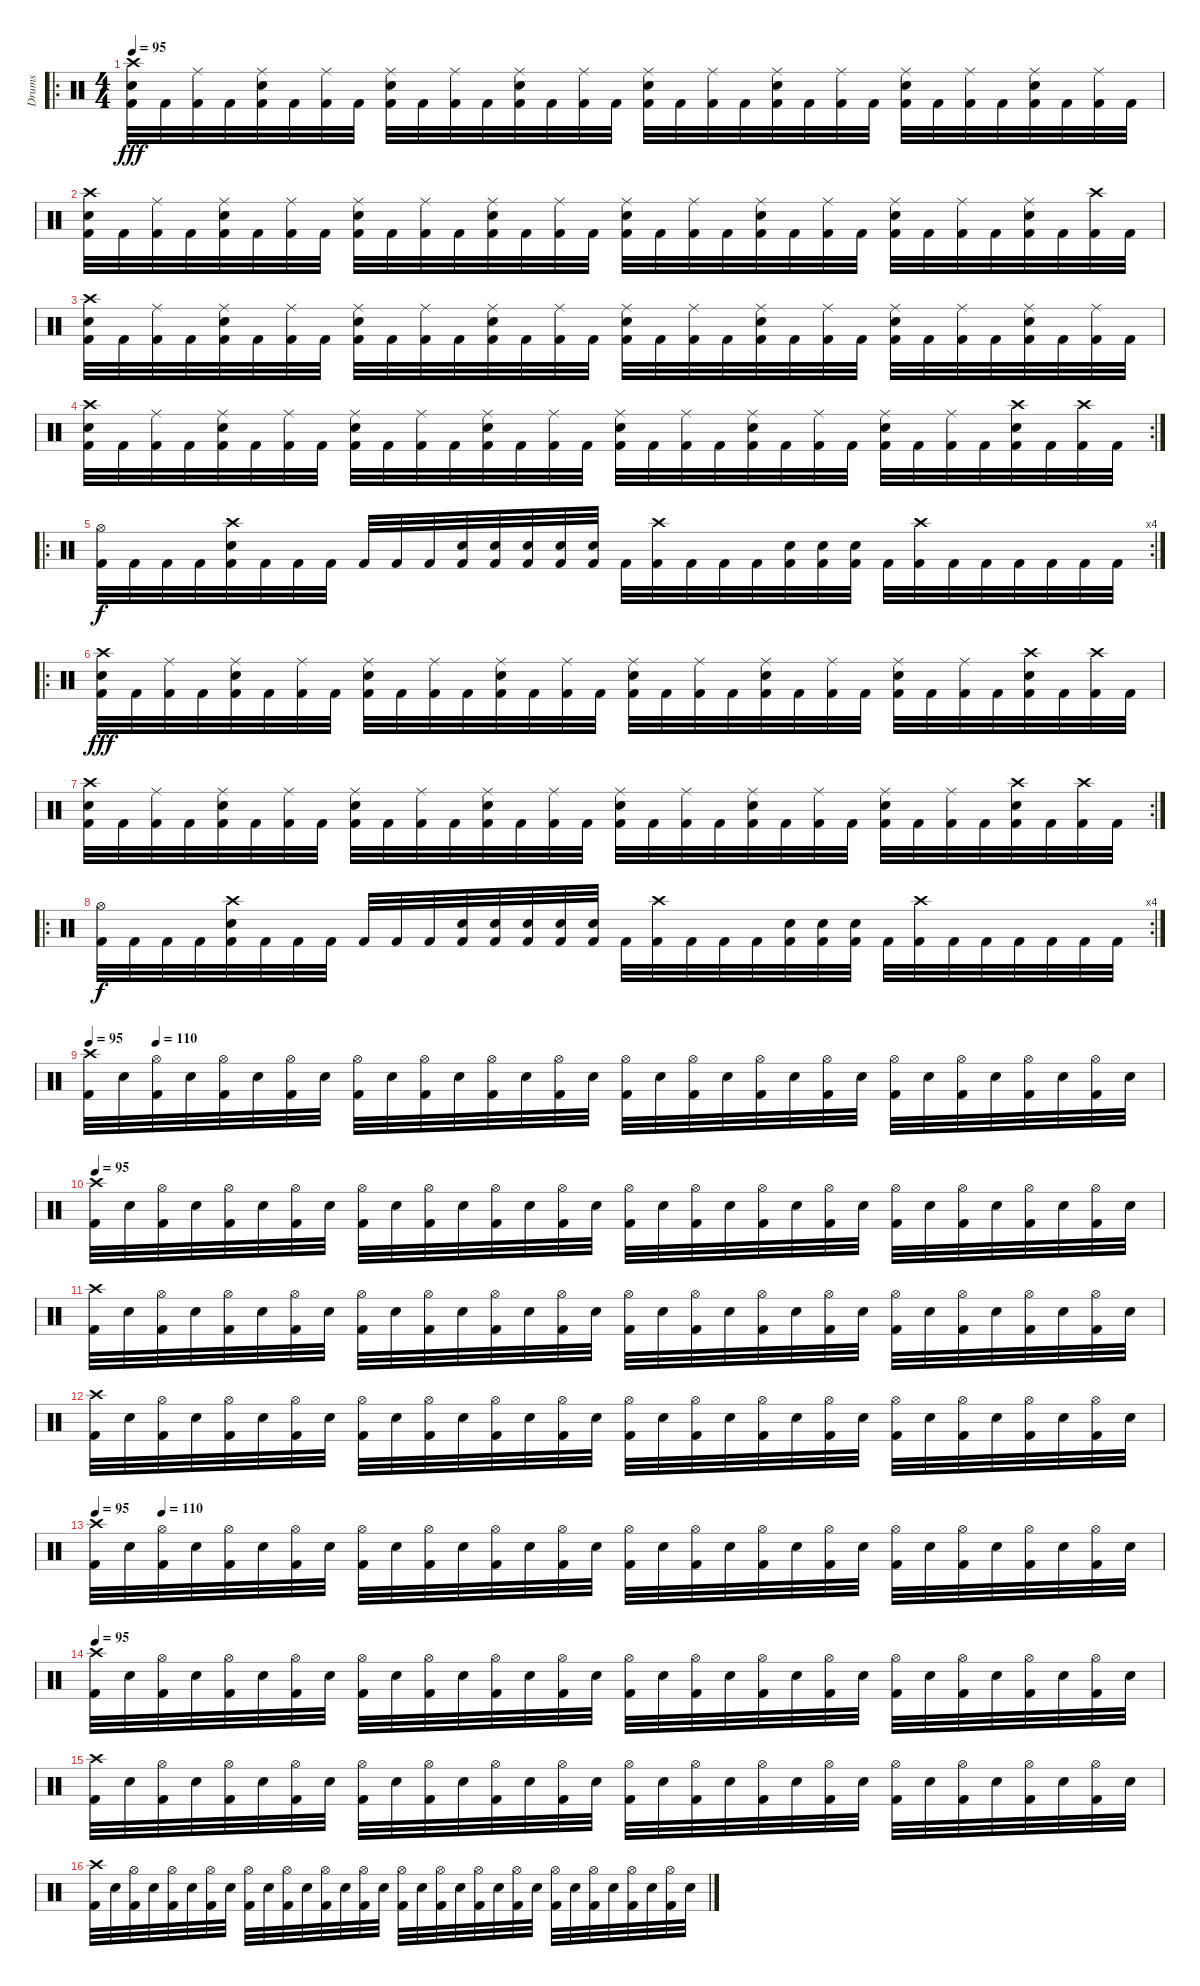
\track ("Drums" "Drums") {instrument percussion}
\staff {score}
\articulation defaults
\ro
\ts (4 4)
\tempo 95
\clef neutral
\ks c
("Crash high (hit)" "Snare (hit) 2" "Kick (hit) 2").32{dy fff} "Kick (hit) 2".32 ("Ride (middle)" "Kick (hit) 2").32 "Kick (hit) 2".32 ("Ride (middle)" "Snare (hit) 2" "Kick (hit) 2").32 "Kick (hit) 2".32 ("Ride (middle)" "Kick (hit) 2").32 "Kick (hit) 2".32 ("Ride (middle)" "Snare (hit) 2" "Kick (hit) 2").32 "Kick (hit) 2".32 ("Ride (middle)" "Kick (hit) 2").32 "Kick (hit) 2".32 ("Ride (middle)" "Snare (hit) 2" "Kick (hit) 2").32 "Kick (hit) 2".32 ("Ride (middle)" "Kick (hit) 2").32 "Kick (hit) 2".32 ("Ride (middle)" "Snare (hit) 2" "Kick (hit) 2").32 "Kick (hit) 2".32 ("Ride (middle)" "Kick (hit) 2").32 "Kick (hit) 2".32 ("Ride (middle)" "Snare (hit) 2" "Kick (hit) 2").32 "Kick (hit) 2".32 ("Ride (middle)" "Kick (hit) 2").32 "Kick (hit) 2".32 ("Ride (middle)" "Snare (hit) 2" "Kick (hit) 2").32 "Kick (hit) 2".32 ("Ride (middle)" "Kick (hit) 2").32 "Kick (hit) 2".32 ("Ride (middle)" "Snare (hit) 2" "Kick (hit) 2").32 "Kick (hit) 2".32 ("Ride (middle)" "Kick (hit) 2").32 "Kick (hit) 2".32 |
("Crash high (hit)" "Snare (hit) 2" "Kick (hit) 2").32 "Kick (hit) 2".32 ("Ride (middle)" "Kick (hit) 2").32 "Kick (hit) 2".32 ("Ride (middle)" "Snare (hit) 2" "Kick (hit) 2").32 "Kick (hit) 2".32 ("Ride (middle)" "Kick (hit) 2").32 "Kick (hit) 2".32 ("Ride (middle)" "Snare (hit) 2" "Kick (hit) 2").32 "Kick (hit) 2".32 ("Ride (middle)" "Kick (hit) 2").32 "Kick (hit) 2".32 ("Ride (middle)" "Snare (hit) 2" "Kick (hit) 2").32 "Kick (hit) 2".32 ("Ride (middle)" "Kick (hit) 2").32 "Kick (hit) 2".32 ("Ride (middle)" "Snare (hit) 2" "Kick (hit) 2").32 "Kick (hit) 2".32 ("Ride (middle)" "Kick (hit) 2").32 "Kick (hit) 2".32 ("Ride (middle)" "Snare (hit) 2" "Kick (hit) 2").32 "Kick (hit) 2".32 ("Ride (middle)" "Kick (hit) 2").32 "Kick (hit) 2".32 ("Ride (middle)" "Snare (hit) 2" "Kick (hit) 2").32 "Kick (hit) 2".32 ("Ride (middle)" "Kick (hit) 2").32 "Kick (hit) 2".32 ("Ride (middle)" "Snare (hit) 2" "Kick (hit) 2").32 "Kick (hit) 2".32 ("Crash high (hit)" "Kick (hit) 2").32 "Kick (hit) 2".32 |
("Crash high (hit)" "Snare (hit) 2" "Kick (hit) 2").32 "Kick (hit) 2".32 ("Ride (middle)" "Kick (hit) 2").32 "Kick (hit) 2".32 ("Ride (middle)" "Snare (hit) 2" "Kick (hit) 2").32 "Kick (hit) 2".32 ("Ride (middle)" "Kick (hit) 2").32 "Kick (hit) 2".32 ("Ride (middle)" "Snare (hit) 2" "Kick (hit) 2").32 "Kick (hit) 2".32 ("Ride (middle)" "Kick (hit) 2").32 "Kick (hit) 2".32 ("Ride (middle)" "Snare (hit) 2" "Kick (hit) 2").32 "Kick (hit) 2".32 ("Ride (middle)" "Kick (hit) 2").32 "Kick (hit) 2".32 ("Ride (middle)" "Snare (hit) 2" "Kick (hit) 2").32 "Kick (hit) 2".32 ("Ride (middle)" "Kick (hit) 2").32 "Kick (hit) 2".32 ("Ride (middle)" "Snare (hit) 2" "Kick (hit) 2").32 "Kick (hit) 2".32 ("Ride (middle)" "Kick (hit) 2").32 "Kick (hit) 2".32 ("Ride (middle)" "Snare (hit) 2" "Kick (hit) 2").32 "Kick (hit) 2".32 ("Ride (middle)" "Kick (hit) 2").32 "Kick (hit) 2".32 ("Ride (middle)" "Snare (hit) 2" "Kick (hit) 2").32 "Kick (hit) 2".32 ("Ride (middle)" "Kick (hit) 2").32 "Kick (hit) 2".32 |
\rc 2
("Crash high (hit)" "Snare (hit) 2" "Kick (hit) 2").32 "Kick (hit) 2".32 ("Ride (middle)" "Kick (hit) 2").32 "Kick (hit) 2".32 ("Ride (middle)" "Snare (hit) 2" "Kick (hit) 2").32 "Kick (hit) 2".32 ("Ride (middle)" "Kick (hit) 2").32 "Kick (hit) 2".32 ("Ride (middle)" "Snare (hit) 2" "Kick (hit) 2").32 "Kick (hit) 2".32 ("Ride (middle)" "Kick (hit) 2").32 "Kick (hit) 2".32 ("Ride (middle)" "Snare (hit) 2" "Kick (hit) 2").32 "Kick (hit) 2".32 ("Ride (middle)" "Kick (hit) 2").32 "Kick (hit) 2".32 ("Ride (middle)" "Snare (hit) 2" "Kick (hit) 2").32 "Kick (hit) 2".32 ("Ride (middle)" "Kick (hit) 2").32 "Kick (hit) 2".32 ("Ride (middle)" "Snare (hit) 2" "Kick (hit) 2").32 "Kick (hit) 2".32 ("Ride (middle)" "Kick (hit) 2").32 "Kick (hit) 2".32 ("Ride (middle)" "Snare (hit) 2" "Kick (hit) 2").32 "Kick (hit) 2".32 ("Ride (middle)" "Kick (hit) 2").32 "Kick (hit) 2".32 ("Crash high (hit)" "Snare (hit) 2" "Kick (hit) 2").32 "Kick (hit) 2".32 ("Crash high (hit)" "Kick (hit) 2").32 "Kick (hit) 2".32 |
\ro
\rc 4
("Hi-Hat (open)" "Kick (hit) 2").32{dy f} "Kick (hit) 2".32 "Kick (hit) 2".32 "Kick (hit) 2".32 ("Crash high (hit)" "Snare (hit) 2" "Kick (hit) 2").32 "Kick (hit) 2".32 "Kick (hit) 2".32 "Kick (hit) 2".32 "Kick (hit) 2".32 "Kick (hit) 2".32 "Kick (hit) 2".32 ("Snare (hit) 2" "Kick (hit) 2").32 ("Snare (hit) 2" "Kick (hit) 2").32 ("Snare (hit) 2" "Kick (hit) 2").32 ("Snare (hit) 2" "Kick (hit) 2").32 ("Snare (hit) 2" "Kick (hit) 2").32 "Kick (hit) 2".32 ("Crash high (hit)" "Kick (hit) 2").32 "Kick (hit) 2".32 "Kick (hit) 2".32 "Kick (hit) 2".32 ("Snare (hit) 2" "Kick (hit) 2").32 ("Snare (hit) 2" "Kick (hit) 2").32 ("Snare (hit) 2" "Kick (hit) 2").32 "Kick (hit) 2".32 ("Crash high (hit)" "Kick (hit) 2").32 "Kick (hit) 2".32 "Kick (hit) 2".32 "Kick (hit) 2".32 "Kick (hit) 2".32 "Kick (hit) 2".32 "Kick (hit) 2".32 |
\ro
("Crash high (hit)" "Snare (hit) 2" "Kick (hit) 2").32{dy fff} "Kick (hit) 2".32 ("Ride (middle)" "Kick (hit) 2").32 "Kick (hit) 2".32 ("Ride (middle)" "Snare (hit) 2" "Kick (hit) 2").32 "Kick (hit) 2".32 ("Ride (middle)" "Kick (hit) 2").32 "Kick (hit) 2".32 ("Ride (middle)" "Snare (hit) 2" "Kick (hit) 2").32 "Kick (hit) 2".32 ("Ride (middle)" "Kick (hit) 2").32 "Kick (hit) 2".32 ("Ride (middle)" "Snare (hit) 2" "Kick (hit) 2").32 "Kick (hit) 2".32 ("Ride (middle)" "Kick (hit) 2").32 "Kick (hit) 2".32 ("Ride (middle)" "Snare (hit) 2" "Kick (hit) 2").32 "Kick (hit) 2".32 ("Ride (middle)" "Kick (hit) 2").32 "Kick (hit) 2".32 ("Ride (middle)" "Snare (hit) 2" "Kick (hit) 2").32 "Kick (hit) 2".32 ("Ride (middle)" "Kick (hit) 2").32 "Kick (hit) 2".32 ("Ride (middle)" "Snare (hit) 2" "Kick (hit) 2").32 "Kick (hit) 2".32 ("Ride (middle)" "Kick (hit) 2").32 "Kick (hit) 2".32 ("Crash high (hit)" "Snare (hit) 2" "Kick (hit) 2").32 "Kick (hit) 2".32 ("Crash high (hit)" "Kick (hit) 2").32 "Kick (hit) 2".32 |
\rc 2
("Crash high (hit)" "Snare (hit) 2" "Kick (hit) 2").32 "Kick (hit) 2".32 ("Ride (middle)" "Kick (hit) 2").32 "Kick (hit) 2".32 ("Ride (middle)" "Snare (hit) 2" "Kick (hit) 2").32 "Kick (hit) 2".32 ("Ride (middle)" "Kick (hit) 2").32 "Kick (hit) 2".32 ("Ride (middle)" "Snare (hit) 2" "Kick (hit) 2").32 "Kick (hit) 2".32 ("Ride (middle)" "Kick (hit) 2").32 "Kick (hit) 2".32 ("Ride (middle)" "Snare (hit) 2" "Kick (hit) 2").32 "Kick (hit) 2".32 ("Ride (middle)" "Kick (hit) 2").32 "Kick (hit) 2".32 ("Ride (middle)" "Snare (hit) 2" "Kick (hit) 2").32 "Kick (hit) 2".32 ("Ride (middle)" "Kick (hit) 2").32 "Kick (hit) 2".32 ("Ride (middle)" "Snare (hit) 2" "Kick (hit) 2").32 "Kick (hit) 2".32 ("Ride (middle)" "Kick (hit) 2").32 "Kick (hit) 2".32 ("Ride (middle)" "Snare (hit) 2" "Kick (hit) 2").32 "Kick (hit) 2".32 ("Ride (middle)" "Kick (hit) 2").32 "Kick (hit) 2".32 ("Crash high (hit)" "Snare (hit) 2" "Kick (hit) 2").32 "Kick (hit) 2".32 ("Crash high (hit)" "Kick (hit) 2").32 "Kick (hit) 2".32 |
\ro
\rc 4
("Hi-Hat (open)" "Kick (hit) 2").32{dy f} "Kick (hit) 2".32 "Kick (hit) 2".32 "Kick (hit) 2".32 ("Crash high (hit)" "Snare (hit) 2" "Kick (hit) 2").32 "Kick (hit) 2".32 "Kick (hit) 2".32 "Kick (hit) 2".32 "Kick (hit) 2".32 "Kick (hit) 2".32 "Kick (hit) 2".32 ("Snare (hit) 2" "Kick (hit) 2").32 ("Snare (hit) 2" "Kick (hit) 2").32 ("Snare (hit) 2" "Kick (hit) 2").32 ("Snare (hit) 2" "Kick (hit) 2").32 ("Snare (hit) 2" "Kick (hit) 2").32 "Kick (hit) 2".32 ("Crash high (hit)" "Kick (hit) 2").32 "Kick (hit) 2".32 "Kick (hit) 2".32 "Kick (hit) 2".32 ("Snare (hit) 2" "Kick (hit) 2").32 ("Snare (hit) 2" "Kick (hit) 2").32 ("Snare (hit) 2" "Kick (hit) 2").32 "Kick (hit) 2".32 ("Crash high (hit)" "Kick (hit) 2").32 "Kick (hit) 2".32 "Kick (hit) 2".32 "Kick (hit) 2".32 "Kick (hit) 2".32 "Kick (hit) 2".32 "Kick (hit) 2".32 |
\tempo 95
\tempo (110 0.0625)
("Crash high (hit)" "Kick (hit) 2").32 "Snare (hit) 2".32 ("Hi-Hat (open)" "Kick (hit) 2").32 "Snare (hit) 2".32 ("Hi-Hat (open)" "Kick (hit) 2").32 "Snare (hit) 2".32 ("Hi-Hat (open)" "Kick (hit) 2").32 "Snare (hit) 2".32 ("Hi-Hat (open)" "Kick (hit) 2").32 "Snare (hit) 2".32 ("Hi-Hat (open)" "Kick (hit) 2").32 "Snare (hit) 2".32 ("Hi-Hat (open)" "Kick (hit) 2").32 "Snare (hit) 2".32 ("Hi-Hat (open)" "Kick (hit) 2").32 "Snare (hit) 2".32 ("Hi-Hat (open)" "Kick (hit) 2").32 "Snare (hit) 2".32 ("Hi-Hat (open)" "Kick (hit) 2").32 "Snare (hit) 2".32 ("Hi-Hat (open)" "Kick (hit) 2").32 "Snare (hit) 2".32 ("Hi-Hat (open)" "Kick (hit) 2").32 "Snare (hit) 2".32 ("Hi-Hat (open)" "Kick (hit) 2").32 "Snare (hit) 2".32 ("Hi-Hat (open)" "Kick (hit) 2").32 "Snare (hit) 2".32 ("Hi-Hat (open)" "Kick (hit) 2").32 "Snare (hit) 2".32 ("Hi-Hat (open)" "Kick (hit) 2").32 "Snare (hit) 2".32 |
\tempo 95
("Crash high (hit)" "Kick (hit) 2").32 "Snare (hit) 2".32 ("Hi-Hat (open)" "Kick (hit) 2").32 "Snare (hit) 2".32 ("Hi-Hat (open)" "Kick (hit) 2").32 "Snare (hit) 2".32 ("Hi-Hat (open)" "Kick (hit) 2").32 "Snare (hit) 2".32 ("Hi-Hat (open)" "Kick (hit) 2").32 "Snare (hit) 2".32 ("Hi-Hat (open)" "Kick (hit) 2").32 "Snare (hit) 2".32 ("Hi-Hat (open)" "Kick (hit) 2").32 "Snare (hit) 2".32 ("Hi-Hat (open)" "Kick (hit) 2").32 "Snare (hit) 2".32 ("Hi-Hat (open)" "Kick (hit) 2").32 "Snare (hit) 2".32 ("Hi-Hat (open)" "Kick (hit) 2").32 "Snare (hit) 2".32 ("Hi-Hat (open)" "Kick (hit) 2").32 "Snare (hit) 2".32 ("Hi-Hat (open)" "Kick (hit) 2").32 "Snare (hit) 2".32 ("Hi-Hat (open)" "Kick (hit) 2").32 "Snare (hit) 2".32 ("Hi-Hat (open)" "Kick (hit) 2").32 "Snare (hit) 2".32 ("Hi-Hat (open)" "Kick (hit) 2").32 "Snare (hit) 2".32 ("Hi-Hat (open)" "Kick (hit) 2").32 "Snare (hit) 2".32 |
("Crash high (hit)" "Kick (hit) 2").32 "Snare (hit) 2".32 ("Hi-Hat (open)" "Kick (hit) 2").32 "Snare (hit) 2".32 ("Hi-Hat (open)" "Kick (hit) 2").32 "Snare (hit) 2".32 ("Hi-Hat (open)" "Kick (hit) 2").32 "Snare (hit) 2".32 ("Hi-Hat (open)" "Kick (hit) 2").32 "Snare (hit) 2".32 ("Hi-Hat (open)" "Kick (hit) 2").32 "Snare (hit) 2".32 ("Hi-Hat (open)" "Kick (hit) 2").32 "Snare (hit) 2".32 ("Hi-Hat (open)" "Kick (hit) 2").32 "Snare (hit) 2".32 ("Hi-Hat (open)" "Kick (hit) 2").32 "Snare (hit) 2".32 ("Hi-Hat (open)" "Kick (hit) 2").32 "Snare (hit) 2".32 ("Hi-Hat (open)" "Kick (hit) 2").32 "Snare (hit) 2".32 ("Hi-Hat (open)" "Kick (hit) 2").32 "Snare (hit) 2".32 ("Hi-Hat (open)" "Kick (hit) 2").32 "Snare (hit) 2".32 ("Hi-Hat (open)" "Kick (hit) 2").32 "Snare (hit) 2".32 ("Hi-Hat (open)" "Kick (hit) 2").32 "Snare (hit) 2".32 ("Hi-Hat (open)" "Kick (hit) 2").32 "Snare (hit) 2".32 |
("Crash high (hit)" "Kick (hit) 2").32 "Snare (hit) 2".32 ("Hi-Hat (open)" "Kick (hit) 2").32 "Snare (hit) 2".32 ("Hi-Hat (open)" "Kick (hit) 2").32 "Snare (hit) 2".32 ("Hi-Hat (open)" "Kick (hit) 2").32 "Snare (hit) 2".32 ("Hi-Hat (open)" "Kick (hit) 2").32 "Snare (hit) 2".32 ("Hi-Hat (open)" "Kick (hit) 2").32 "Snare (hit) 2".32 ("Hi-Hat (open)" "Kick (hit) 2").32 "Snare (hit) 2".32 ("Hi-Hat (open)" "Kick (hit) 2").32 "Snare (hit) 2".32 ("Hi-Hat (open)" "Kick (hit) 2").32 "Snare (hit) 2".32 ("Hi-Hat (open)" "Kick (hit) 2").32 "Snare (hit) 2".32 ("Hi-Hat (open)" "Kick (hit) 2").32 "Snare (hit) 2".32 ("Hi-Hat (open)" "Kick (hit) 2").32 "Snare (hit) 2".32 ("Hi-Hat (open)" "Kick (hit) 2").32 "Snare (hit) 2".32 ("Hi-Hat (open)" "Kick (hit) 2").32 "Snare (hit) 2".32 ("Hi-Hat (open)" "Kick (hit) 2").32 "Snare (hit) 2".32 ("Hi-Hat (open)" "Kick (hit) 2").32 "Snare (hit) 2".32 |
\tempo 95
\tempo (110 0.0625)
("Crash high (hit)" "Kick (hit) 2").32 "Snare (hit) 2".32 ("Hi-Hat (open)" "Kick (hit) 2").32 "Snare (hit) 2".32 ("Hi-Hat (open)" "Kick (hit) 2").32 "Snare (hit) 2".32 ("Hi-Hat (open)" "Kick (hit) 2").32 "Snare (hit) 2".32 ("Hi-Hat (open)" "Kick (hit) 2").32 "Snare (hit) 2".32 ("Hi-Hat (open)" "Kick (hit) 2").32 "Snare (hit) 2".32 ("Hi-Hat (open)" "Kick (hit) 2").32 "Snare (hit) 2".32 ("Hi-Hat (open)" "Kick (hit) 2").32 "Snare (hit) 2".32 ("Hi-Hat (open)" "Kick (hit) 2").32 "Snare (hit) 2".32 ("Hi-Hat (open)" "Kick (hit) 2").32 "Snare (hit) 2".32 ("Hi-Hat (open)" "Kick (hit) 2").32 "Snare (hit) 2".32 ("Hi-Hat (open)" "Kick (hit) 2").32 "Snare (hit) 2".32 ("Hi-Hat (open)" "Kick (hit) 2").32 "Snare (hit) 2".32 ("Hi-Hat (open)" "Kick (hit) 2").32 "Snare (hit) 2".32 ("Hi-Hat (open)" "Kick (hit) 2").32 "Snare (hit) 2".32 ("Hi-Hat (open)" "Kick (hit) 2").32 "Snare (hit) 2".32 |
\tempo 95
("Crash high (hit)" "Kick (hit) 2").32 "Snare (hit) 2".32 ("Hi-Hat (open)" "Kick (hit) 2").32 "Snare (hit) 2".32 ("Hi-Hat (open)" "Kick (hit) 2").32 "Snare (hit) 2".32 ("Hi-Hat (open)" "Kick (hit) 2").32 "Snare (hit) 2".32 ("Hi-Hat (open)" "Kick (hit) 2").32 "Snare (hit) 2".32 ("Hi-Hat (open)" "Kick (hit) 2").32 "Snare (hit) 2".32 ("Hi-Hat (open)" "Kick (hit) 2").32 "Snare (hit) 2".32 ("Hi-Hat (open)" "Kick (hit) 2").32 "Snare (hit) 2".32 ("Hi-Hat (open)" "Kick (hit) 2").32 "Snare (hit) 2".32 ("Hi-Hat (open)" "Kick (hit) 2").32 "Snare (hit) 2".32 ("Hi-Hat (open)" "Kick (hit) 2").32 "Snare (hit) 2".32 ("Hi-Hat (open)" "Kick (hit) 2").32 "Snare (hit) 2".32 ("Hi-Hat (open)" "Kick (hit) 2").32 "Snare (hit) 2".32 ("Hi-Hat (open)" "Kick (hit) 2").32 "Snare (hit) 2".32 ("Hi-Hat (open)" "Kick (hit) 2").32 "Snare (hit) 2".32 ("Hi-Hat (open)" "Kick (hit) 2").32 "Snare (hit) 2".32 |
("Crash high (hit)" "Kick (hit) 2").32 "Snare (hit) 2".32 ("Hi-Hat (open)" "Kick (hit) 2").32 "Snare (hit) 2".32 ("Hi-Hat (open)" "Kick (hit) 2").32 "Snare (hit) 2".32 ("Hi-Hat (open)" "Kick (hit) 2").32 "Snare (hit) 2".32 ("Hi-Hat (open)" "Kick (hit) 2").32 "Snare (hit) 2".32 ("Hi-Hat (open)" "Kick (hit) 2").32 "Snare (hit) 2".32 ("Hi-Hat (open)" "Kick (hit) 2").32 "Snare (hit) 2".32 ("Hi-Hat (open)" "Kick (hit) 2").32 "Snare (hit) 2".32 ("Hi-Hat (open)" "Kick (hit) 2").32 "Snare (hit) 2".32 ("Hi-Hat (open)" "Kick (hit) 2").32 "Snare (hit) 2".32 ("Hi-Hat (open)" "Kick (hit) 2").32 "Snare (hit) 2".32 ("Hi-Hat (open)" "Kick (hit) 2").32 "Snare (hit) 2".32 ("Hi-Hat (open)" "Kick (hit) 2").32 "Snare (hit) 2".32 ("Hi-Hat (open)" "Kick (hit) 2").32 "Snare (hit) 2".32 ("Hi-Hat (open)" "Kick (hit) 2").32 "Snare (hit) 2".32 ("Hi-Hat (open)" "Kick (hit) 2").32 "Snare (hit) 2".32 |
("Crash high (hit)" "Kick (hit) 2").32 "Snare (hit) 2".32 ("Hi-Hat (open)" "Kick (hit) 2").32 "Snare (hit) 2".32 ("Hi-Hat (open)" "Kick (hit) 2").32 "Snare (hit) 2".32 ("Hi-Hat (open)" "Kick (hit) 2").32 "Snare (hit) 2".32 ("Hi-Hat (open)" "Kick (hit) 2").32 "Snare (hit) 2".32 ("Hi-Hat (open)" "Kick (hit) 2").32 "Snare (hit) 2".32 ("Hi-Hat (open)" "Kick (hit) 2").32 "Snare (hit) 2".32 ("Hi-Hat (open)" "Kick (hit) 2").32 "Snare (hit) 2".32 ("Hi-Hat (open)" "Kick (hit) 2").32 "Snare (hit) 2".32 ("Hi-Hat (open)" "Kick (hit) 2").32 "Snare (hit) 2".32 ("Hi-Hat (open)" "Kick (hit) 2").32 "Snare (hit) 2".32 ("Hi-Hat (open)" "Kick (hit) 2").32 "Snare (hit) 2".32 ("Hi-Hat (open)" "Kick (hit) 2").32 "Snare (hit) 2".32 ("Hi-Hat (open)" "Kick (hit) 2").32 "Snare (hit) 2".32 ("Hi-Hat (open)" "Kick (hit) 2").32 "Snare (hit) 2".32 ("Hi-Hat (open)" "Kick (hit) 2").32 "Snare (hit) 2".32
